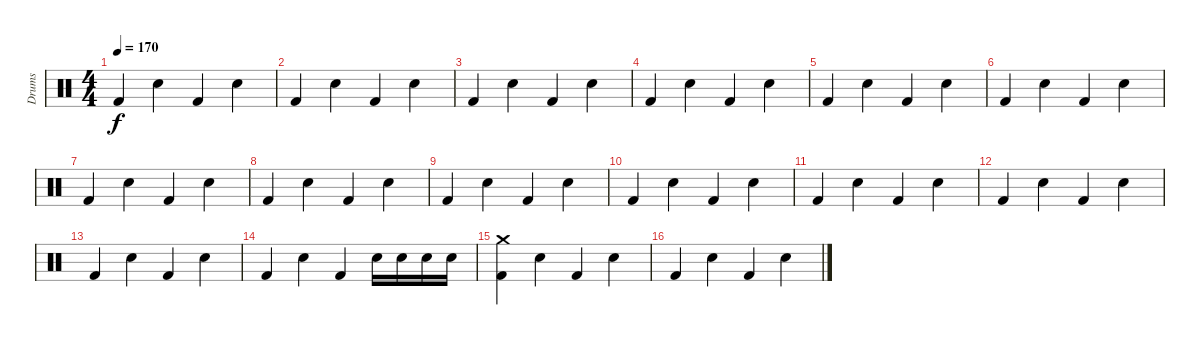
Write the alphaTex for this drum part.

\track ("Drums" "Drums") {instrument percussion}
\staff {score}
\articulation defaults
\ts (4 4)
\tempo 170
\clef neutral
\ks c "Kick (hit) 2".4{dy f} "Snare (hit) 2".4 "Kick (hit) 2".4 "Snare (hit) 2".4
|
"Kick (hit) 2".4 "Snare (hit) 2".4 "Kick (hit) 2".4 "Snare (hit) 2".4 |
"Kick (hit) 2".4 "Snare (hit) 2".4 "Kick (hit) 2".4 "Snare (hit) 2".4 |
"Kick (hit) 2".4 "Snare (hit) 2".4 "Kick (hit) 2".4 "Snare (hit) 2".4 |
"Kick (hit) 2".4 "Snare (hit) 2".4 "Kick (hit) 2".4 "Snare (hit) 2".4 |
"Kick (hit) 2".4 "Snare (hit) 2".4 "Kick (hit) 2".4 "Snare (hit) 2".4 |
"Kick (hit) 2".4 "Snare (hit) 2".4 "Kick (hit) 2".4 "Snare (hit) 2".4 |
"Kick (hit) 2".4 "Snare (hit) 2".4 "Kick (hit) 2".4 "Snare (hit) 2".4 |
"Kick (hit) 2".4 "Snare (hit) 2".4 "Kick (hit) 2".4 "Snare (hit) 2".4 |
"Kick (hit) 2".4 "Snare (hit) 2".4 "Kick (hit) 2".4 "Snare (hit) 2".4 |
"Kick (hit) 2".4 "Snare (hit) 2".4 "Kick (hit) 2".4 "Snare (hit) 2".4 |
"Kick (hit) 2".4 "Snare (hit) 2".4 "Kick (hit) 2".4 "Snare (hit) 2".4 |
"Kick (hit) 2".4 "Snare (hit) 2".4 "Kick (hit) 2".4 "Snare (hit) 2".4 |
"Kick (hit) 2".4 "Snare (hit) 2".4 "Kick (hit) 2".4 "Snare (hit) 2".16 "Snare (hit) 2".16 "Snare (hit) 2".16 "Snare (hit) 2".16 |
("Crash medium (hit)" "Kick (hit) 2").4 "Snare (hit) 2".4 "Kick (hit) 2".4 "Snare (hit) 2".4 |
"Kick (hit) 2".4 "Snare (hit) 2".4 "Kick (hit) 2".4 "Snare (hit) 2".4
